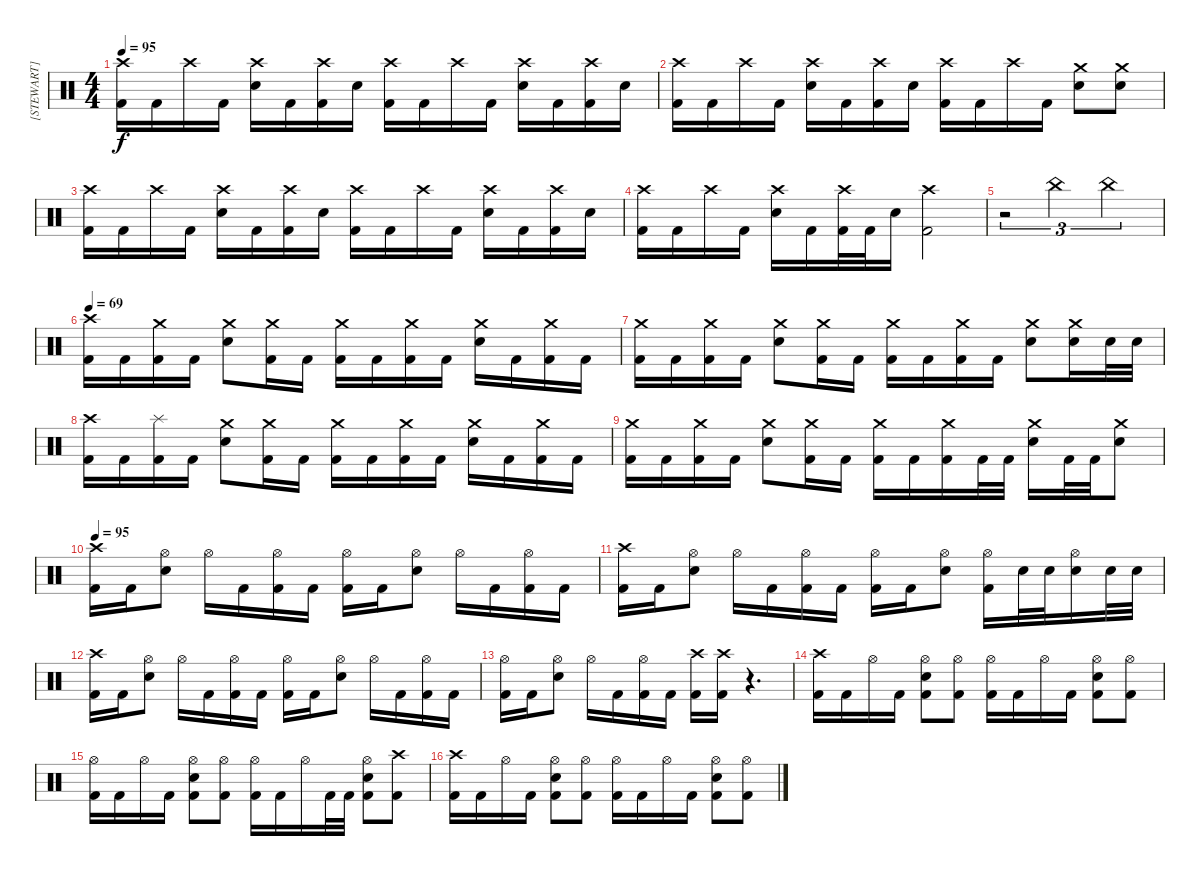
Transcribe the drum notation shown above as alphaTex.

\track ("[STEWART]" "[STEWART]") {instrument percussion}
\staff {score}
\articulation defaults
\ts (4 4)
\tempo 95
\clef neutral
\ks c
("Crash high (hit)" "Kick (hit) 2").16{dy f} "Kick (hit) 2".16 "Crash high (hit)".16 "Kick (hit) 2".16 ("Crash high (hit)" "Electric Snare (hit)").16 "Kick (hit) 2".16 ("Crash high (hit)" "Kick (hit) 2").16 "Electric Snare (hit)".16 ("Crash high (hit)" "Kick (hit) 2").16 "Kick (hit) 2".16 "Crash high (hit)".16 "Kick (hit) 2".16 ("Crash high (hit)" "Electric Snare (hit)").16 "Kick (hit) 2".16 ("Crash high (hit)" "Kick (hit) 2").16 "Electric Snare (hit)".16 |
("Crash high (hit)" "Kick (hit) 2").16 "Kick (hit) 2".16 "Crash high (hit)".16 "Kick (hit) 2".16 ("Crash high (hit)" "Electric Snare (hit)").16 "Kick (hit) 2".16 ("Crash high (hit)" "Kick (hit) 2").16 "Electric Snare (hit)".16 ("Crash high (hit)" "Kick (hit) 2").16 "Kick (hit) 2".16 "Crash high (hit)".16 "Kick (hit) 2".16 ("Crash medium (hit)" "Electric Snare (hit)").8 ("Crash medium (hit)" "Electric Snare (hit)").8 |
("Crash high (hit)" "Kick (hit) 2").16 "Kick (hit) 2".16 "Crash high (hit)".16 "Kick (hit) 2".16 ("Crash high (hit)" "Electric Snare (hit)").16 "Kick (hit) 2".16 ("Crash high (hit)" "Kick (hit) 2").16 "Electric Snare (hit)".16 ("Crash high (hit)" "Kick (hit) 2").16 "Kick (hit) 2".16 "Crash high (hit)".16 "Kick (hit) 2".16 ("Crash high (hit)" "Electric Snare (hit)").16 "Kick (hit) 2".16 ("Crash high (hit)" "Kick (hit) 2").16 "Electric Snare (hit)".16 |
("Crash high (hit)" "Kick (hit) 2").16 "Kick (hit) 2".16 "Crash high (hit)".16 "Kick (hit) 2".16 ("Crash high (hit)" "Electric Snare (hit)").16 "Kick (hit) 2".16 ("Crash high (hit)" "Kick (hit) 2").32 "Kick (hit) 2".32 "Electric Snare (hit)".16 ("Crash high (hit)" "Kick (hit) 2").2 |
r.2{tu (3 2)} "China (hit)".2{tu (3 2)} "China (hit)".2{tu (3 2)} |
\tempo 69
("Crash high (hit)" "Kick (hit) 2").16 "Kick (hit) 2".16 ("Crash medium (hit)" "Kick (hit) 2").16 "Kick (hit) 2".16 ("Crash medium (hit)" "Electric Snare (hit)").8 ("Crash medium (hit)" "Kick (hit) 2").16 "Kick (hit) 2".16 ("Crash medium (hit)" "Kick (hit) 2").16 "Kick (hit) 2".16 ("Crash medium (hit)" "Kick (hit) 2").16 "Kick (hit) 2".16 ("Crash medium (hit)" "Electric Snare (hit)").16 "Kick (hit) 2".16 ("Crash medium (hit)" "Kick (hit) 2").16 "Kick (hit) 2".16 |
("Crash medium (hit)" "Kick (hit) 2").16 "Kick (hit) 2".16 ("Crash medium (hit)" "Kick (hit) 2").16 "Kick (hit) 2".16 ("Crash medium (hit)" "Electric Snare (hit)").8 ("Crash medium (hit)" "Kick (hit) 2").16 "Kick (hit) 2".16 ("Crash medium (hit)" "Kick (hit) 2").16 "Kick (hit) 2".16 ("Crash medium (hit)" "Kick (hit) 2").16 "Kick (hit) 2".16 ("Crash medium (hit)" "Electric Snare (hit)").8 ("Crash medium (hit)" "Electric Snare (hit)").16 "Electric Snare (hit)".32 "Electric Snare (hit)".32 |
("Crash high (hit)" "Kick (hit) 2").16 "Kick (hit) 2".16 ("Splash (hit)" "Kick (hit) 2").16 "Kick (hit) 2".16 ("Crash medium (hit)" "Electric Snare (hit)").8 ("Crash medium (hit)" "Kick (hit) 2").16 "Kick (hit) 2".16 ("Crash medium (hit)" "Kick (hit) 2").16 "Kick (hit) 2".16 ("Crash medium (hit)" "Kick (hit) 2").16 "Kick (hit) 2".16 ("Crash medium (hit)" "Electric Snare (hit)").16 "Kick (hit) 2".16 ("Crash medium (hit)" "Kick (hit) 2").16 "Kick (hit) 2".16 |
("Crash medium (hit)" "Kick (hit) 2").16 "Kick (hit) 2".16 ("Crash medium (hit)" "Kick (hit) 2").16 "Kick (hit) 2".16 ("Crash medium (hit)" "Electric Snare (hit)").8 ("Crash medium (hit)" "Kick (hit) 2").16 "Kick (hit) 2".16 ("Crash medium (hit)" "Kick (hit) 2").16 "Kick (hit) 2".16 ("Crash medium (hit)" "Kick (hit) 2").16 "Kick (hit) 2".32 "Kick (hit) 2".32 ("Crash medium (hit)" "Electric Snare (hit)").16 "Kick (hit) 2".32 "Kick (hit) 2".32 ("Crash medium (hit)" "Electric Snare (hit)").8 |
\tempo 95
("Crash high (hit)" "Kick (hit) 2").16 "Kick (hit) 2".16 ("Hi-Hat (open)" "Electric Snare (hit)").8 "Hi-Hat (open)".16 "Kick (hit) 2".16 ("Hi-Hat (open)" "Kick (hit) 2").16 "Kick (hit) 2".16 ("Hi-Hat (open)" "Kick (hit) 2").16 "Kick (hit) 2".16 ("Hi-Hat (open)" "Electric Snare (hit)").8 "Hi-Hat (open)".16 "Kick (hit) 2".16 ("Hi-Hat (open)" "Kick (hit) 2").16 "Kick (hit) 2".16 |
("Crash high (hit)" "Kick (hit) 2").16 "Kick (hit) 2".16 ("Hi-Hat (open)" "Electric Snare (hit)").8 "Hi-Hat (open)".16 "Kick (hit) 2".16 ("Hi-Hat (open)" "Kick (hit) 2").16 "Kick (hit) 2".16 ("Hi-Hat (open)" "Kick (hit) 2").16 "Kick (hit) 2".16 ("Hi-Hat (open)" "Electric Snare (hit)").8 ("Hi-Hat (open)" "Kick (hit) 2").16 "Electric Snare (hit)".32 "Electric Snare (hit)".32 ("Hi-Hat (open)" "Electric Snare (hit)").16 "Electric Snare (hit)".32 "Electric Snare (hit)".32 |
("Crash high (hit)" "Kick (hit) 2").16 "Kick (hit) 2".16 ("Hi-Hat (open)" "Electric Snare (hit)").8 "Hi-Hat (open)".16 "Kick (hit) 2".16 ("Hi-Hat (open)" "Kick (hit) 2").16 "Kick (hit) 2".16 ("Hi-Hat (open)" "Kick (hit) 2").16 "Kick (hit) 2".16 ("Hi-Hat (open)" "Electric Snare (hit)").8 "Hi-Hat (open)".16 "Kick (hit) 2".16 ("Hi-Hat (open)" "Kick (hit) 2").16 "Kick (hit) 2".16 |
("Hi-Hat (open)" "Kick (hit) 2").16 "Kick (hit) 2".16 ("Hi-Hat (open)" "Electric Snare (hit)").8 "Hi-Hat (open)".16 "Kick (hit) 2".16 ("Hi-Hat (open)" "Kick (hit) 2").16 "Kick (hit) 2".16 ("Crash high (hit)" "Kick (hit) 2").16 ("Crash high (hit)" "Kick (hit) 2").16 r.4{d} |
("Crash high (hit)" "Kick (hit) 2").16 "Kick (hit) 2".16 "Hi-Hat (open)".16 "Kick (hit) 2".16 ("Hi-Hat (open)" "Electric Snare (hit)" "Kick (hit) 2").8 ("Hi-Hat (open)" "Kick (hit) 2").8 ("Hi-Hat (open)" "Kick (hit) 2").16 "Kick (hit) 2".16 "Hi-Hat (open)".16 "Kick (hit) 2".16 ("Hi-Hat (open)" "Electric Snare (hit)" "Kick (hit) 2").8 ("Hi-Hat (open)" "Kick (hit) 2").8 |
("Hi-Hat (open)" "Kick (hit) 2").16 "Kick (hit) 2".16 "Hi-Hat (open)".16 "Kick (hit) 2".16 ("Hi-Hat (open)" "Electric Snare (hit)" "Kick (hit) 2").8 ("Hi-Hat (open)" "Kick (hit) 2").8 ("Hi-Hat (open)" "Kick (hit) 2").16 "Kick (hit) 2".16 "Hi-Hat (open)".16 "Kick (hit) 2".32 "Kick (hit) 2".32 ("Hi-Hat (open)" "Electric Snare (hit)" "Kick (hit) 2").8 ("Crash high (hit)" "Kick (hit) 2").8 |
("Crash high (hit)" "Kick (hit) 2").16 "Kick (hit) 2".16 "Hi-Hat (open)".16 "Kick (hit) 2".16 ("Hi-Hat (open)" "Electric Snare (hit)" "Kick (hit) 2").8 ("Hi-Hat (open)" "Kick (hit) 2").8 ("Hi-Hat (open)" "Kick (hit) 2").16 "Kick (hit) 2".16 "Hi-Hat (open)".16 "Kick (hit) 2".16 ("Hi-Hat (open)" "Electric Snare (hit)" "Kick (hit) 2").8 ("Hi-Hat (open)" "Kick (hit) 2").8
